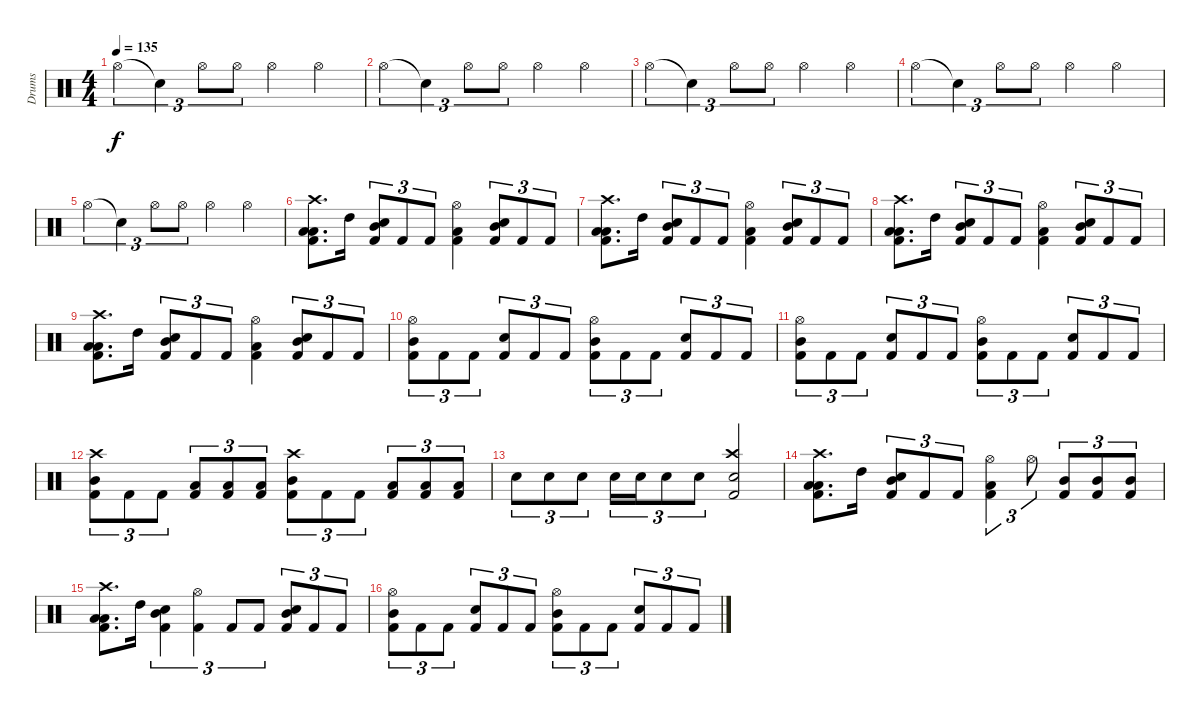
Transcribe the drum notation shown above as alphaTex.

\track ("Drums" "Drums") {instrument percussion}
\staff {score}
\articulation defaults
\ts (4 4)
\tempo 135
\clef neutral
\ks c "Hi-Hat (open)".4{tu (3 2) dy f volume 10} "Snare (hit)"{t}.4{tu (3 2)} "Hi-Hat (open)".8{tu (3 2)} "Hi-Hat (open)".8{tu (3 2)} "Hi-Hat (open)".4 "Hi-Hat (open)".4
|
"Hi-Hat (open)".4{tu (3 2) volume 10} "Snare (hit)"{t}.4{tu (3 2)} "Hi-Hat (open)".8{tu (3 2)} "Hi-Hat (open)".8{tu (3 2)} "Hi-Hat (open)".4 "Hi-Hat (open)".4 |
"Hi-Hat (open)".4{tu (3 2) volume 10} "Snare (hit)"{t}.4{tu (3 2)} "Hi-Hat (open)".8{tu (3 2)} "Hi-Hat (open)".8{tu (3 2)} "Hi-Hat (open)".4 "Hi-Hat (open)".4 |
"Hi-Hat (open)".4{tu (3 2) volume 10} "Snare (hit)"{t}.4{tu (3 2)} "Hi-Hat (open)".8{tu (3 2)} "Hi-Hat (open)".8{tu (3 2)} "Hi-Hat (open)".4 "Hi-Hat (open)".4 |
"Hi-Hat (open)".4{tu (3 2) volume 10} "Snare (hit)"{t}.4{tu (3 2)} "Hi-Hat (open)".8{tu (3 2)} "Hi-Hat (open)".8{tu (3 2)} "Hi-Hat (open)".4 "Hi-Hat (open)".4 |
("Crash high (hit)" "Low Tom (hit)" "Low Tom (hit)" "Kick (hit) 2").8{d volume 16} "High Tom (hit)".16 ("Mid Tom (hit)" "Snare (hit) 2" "Kick (hit) 2").8{tu (3 2)} "Kick (hit) 2".8{tu (3 2)} "Kick (hit) 2".8{tu (3 2)} ("Hi-Hat (open)" "Low Tom (hit)" "Kick (hit) 2").4 ("Mid Tom (hit)" "Snare (hit) 2" "Kick (hit) 2").8{tu (3 2)} "Kick (hit) 2".8{tu (3 2)} "Kick (hit) 2".8{tu (3 2)} |
("Crash high (hit)" "Low Tom (hit)" "Low Tom (hit)" "Kick (hit) 2").8{d} "High Tom (hit)".16 ("Mid Tom (hit)" "Snare (hit) 2" "Kick (hit) 2").8{tu (3 2)} "Kick (hit) 2".8{tu (3 2)} "Kick (hit) 2".8{tu (3 2)} ("Hi-Hat (open)" "Low Tom (hit)" "Kick (hit) 2").4 ("Mid Tom (hit)" "Snare (hit) 2" "Kick (hit) 2").8{tu (3 2)} "Kick (hit) 2".8{tu (3 2)} "Kick (hit) 2".8{tu (3 2)} |
("Crash high (hit)" "Low Tom (hit)" "Low Tom (hit)" "Kick (hit) 2").8{d} "High Tom (hit)".16 ("Mid Tom (hit)" "Snare (hit) 2" "Kick (hit) 2").8{tu (3 2)} "Kick (hit) 2".8{tu (3 2)} "Kick (hit) 2".8{tu (3 2)} ("Hi-Hat (open)" "Low Tom (hit)" "Kick (hit) 2").4 ("Mid Tom (hit)" "Snare (hit) 2" "Kick (hit) 2").8{tu (3 2)} "Kick (hit) 2".8{tu (3 2)} "Kick (hit) 2".8{tu (3 2)} |
("Crash high (hit)" "Low Tom (hit)" "Low Tom (hit)" "Kick (hit) 2").8{d} "High Tom (hit)".16 ("Mid Tom (hit)" "Snare (hit) 2" "Kick (hit) 2").8{tu (3 2)} "Kick (hit) 2".8{tu (3 2)} "Kick (hit) 2".8{tu (3 2)} ("Hi-Hat (open)" "Low Tom (hit)" "Kick (hit) 2").4 ("Mid Tom (hit)" "Snare (hit) 2" "Kick (hit) 2").8{tu (3 2)} "Kick (hit) 2".8{tu (3 2)} "Kick (hit) 2".8{tu (3 2)} |
("Hi-Hat (open)" "Mid Tom (hit)" "Kick (hit) 2").8{tu (3 2)} "Kick (hit) 2".8{tu (3 2)} "Kick (hit) 2".8{tu (3 2)} ("Snare (hit) 2" "Kick (hit) 2").8{tu (3 2)} "Kick (hit) 2".8{tu (3 2)} "Kick (hit) 2".8{tu (3 2)} ("Hi-Hat (open)" "Mid Tom (hit)" "Kick (hit) 2").8{tu (3 2)} "Kick (hit) 2".8{tu (3 2)} "Kick (hit) 2".8{tu (3 2)} ("Snare (hit) 2" "Kick (hit) 2").8{tu (3 2)} "Kick (hit) 2".8{tu (3 2)} "Kick (hit) 2".8{tu (3 2)} |
("Hi-Hat (open)" "Mid Tom (hit)" "Kick (hit) 2").8{tu (3 2)} "Kick (hit) 2".8{tu (3 2)} "Kick (hit) 2".8{tu (3 2)} ("Snare (hit) 2" "Kick (hit) 2").8{tu (3 2)} "Kick (hit) 2".8{tu (3 2)} "Kick (hit) 2".8{tu (3 2)} ("Hi-Hat (open)" "Mid Tom (hit)" "Kick (hit) 2").8{tu (3 2)} "Kick (hit) 2".8{tu (3 2)} "Kick (hit) 2".8{tu (3 2)} ("Snare (hit) 2" "Kick (hit) 2").8{tu (3 2)} "Kick (hit) 2".8{tu (3 2)} "Kick (hit) 2".8{tu (3 2)} |
("Crash high (hit)" "Mid Tom (hit)" "Kick (hit) 2").8{tu (3 2)} "Kick (hit) 2".8{tu (3 2)} "Kick (hit) 2".8{tu (3 2)} ("Low Tom (hit)" "Kick (hit) 2").8{tu (3 2)} ("Low Tom (hit)" "Kick (hit) 2").8{tu (3 2)} ("Low Tom (hit)" "Kick (hit) 2").8{tu (3 2)} ("Crash high (hit)" "Mid Tom (hit)" "Kick (hit) 2").8{tu (3 2)} "Kick (hit) 2".8{tu (3 2)} "Kick (hit) 2".8{tu (3 2)} ("Low Tom (hit)" "Kick (hit) 2").8{tu (3 2)} ("Low Tom (hit)" "Kick (hit) 2").8{tu (3 2)} ("Low Tom (hit)" "Kick (hit) 2").8{tu (3 2)} |
"Snare (hit) 2".8{tu (3 2)} "Snare (hit) 2".8{tu (3 2)} "Snare (hit) 2".8{tu (3 2)} "Snare (hit) 2".16{tu (3 2)} "Snare (hit) 2".16{tu (3 2)} "Snare (hit) 2".8{tu (3 2)} "Snare (hit) 2".8{tu (3 2)} ("Crash high (hit)" "Snare (hit) 2" "Kick (hit) 2").2 |
("Crash high (hit)" "Low Tom (hit)" "Low Tom (hit)" "Kick (hit) 2").8{d} "High Tom (hit)".16 ("Mid Tom (hit)" "Snare (hit) 2" "Kick (hit) 2").8{tu (3 2)} "Kick (hit) 2".8{tu (3 2)} "Kick (hit) 2".8{tu (3 2)} ("Hi-Hat (open)" "Low Tom (hit)" "Kick (hit) 2").4{tu (3 2)} "Hi-Hat (open)".8{tu (3 2)} ("Mid Tom (hit)" "Kick (hit) 2").8{tu (3 2)} ("Mid Tom (hit)" "Kick (hit) 2").8{tu (3 2)} ("Mid Tom (hit)" "Kick (hit) 2").8{tu (3 2)} |
("Crash high (hit)" "Low Tom (hit)" "Low Tom (hit)" "Kick (hit) 2").8{d} "High Tom (hit)".16 ("Mid Tom (hit)" "Snare (hit) 2" "Kick (hit) 2").4{tu (3 2)} ("Hi-Hat (open)" "Kick (hit) 2").4{tu (3 2)} "Kick (hit) 2".8{tu (3 2)} "Kick (hit) 2".8{tu (3 2)} ("Mid Tom (hit)" "Snare (hit) 2" "Kick (hit) 2").8{tu (3 2)} "Kick (hit) 2".8{tu (3 2)} "Kick (hit) 2".8{tu (3 2)} |
("Hi-Hat (open)" "Mid Tom (hit)" "Kick (hit) 2").8{tu (3 2)} "Kick (hit) 2".8{tu (3 2)} "Kick (hit) 2".8{tu (3 2)} ("Snare (hit) 2" "Kick (hit) 2").8{tu (3 2)} "Kick (hit) 2".8{tu (3 2)} "Kick (hit) 2".8{tu (3 2)} ("Hi-Hat (open)" "Mid Tom (hit)" "Kick (hit) 2").8{tu (3 2)} "Kick (hit) 2".8{tu (3 2)} "Kick (hit) 2".8{tu (3 2)} ("Snare (hit) 2" "Kick (hit) 2").8{tu (3 2)} "Kick (hit) 2".8{tu (3 2)} "Kick (hit) 2".8{tu (3 2)}
